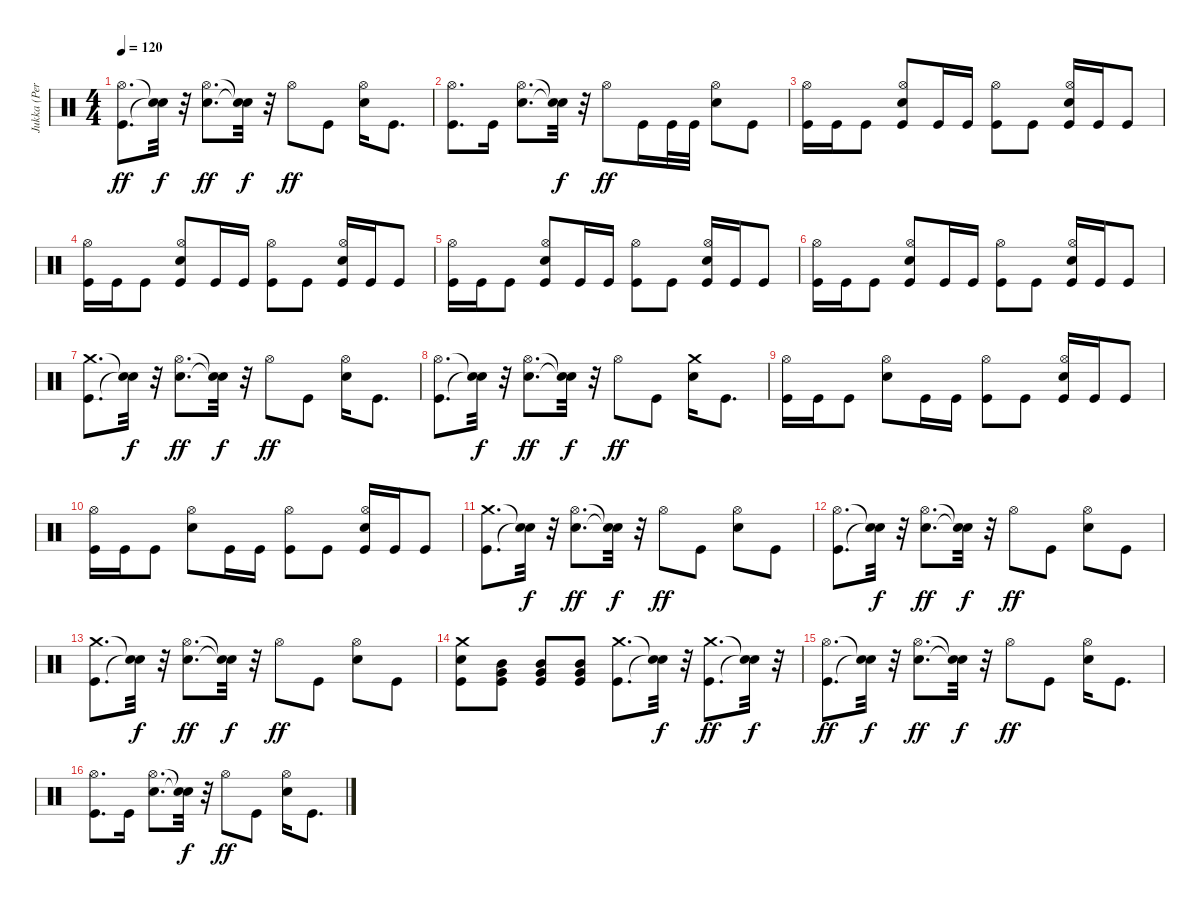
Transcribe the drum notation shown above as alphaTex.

\track ("Jukka (Percussion)" "Jukka (Per") {instrument percussion}
\staff {score}
\articulation defaults
\ts (4 4)
\tempo 120
\clef neutral
\ks c
("Kick (hit)" "Hi-Hat (open)").8{d dy ff} ("Snare (hit)"{t} "Snare (hit)"{t}).32{dy f} r.32 ("Electric Snare (hit)" "Hi-Hat (open)").8{d dy ff} ("Snare (hit)"{t} "Snare (hit)"{t}).32{dy f} r.32 "Hi-Hat (open)".8{dy ff} "Kick (hit)".8 ("Electric Snare (hit)" "Hi-Hat (open)").16 "Kick (hit)".8{d} |
("Kick (hit)" "Hi-Hat (open)").8{d} "Kick (hit)".16 ("Electric Snare (hit)" "Hi-Hat (open)").8{d} ("Snare (hit)"{t} "Snare (hit)"{t}).32{dy f} r.32 "Hi-Hat (open)".8{dy ff} "Kick (hit)".16 "Kick (hit)".32 "Kick (hit)".32 ("Electric Snare (hit)" "Hi-Hat (open)").8 "Kick (hit)".8 |
("Kick (hit)" "Hi-Hat (open)").16 "Kick (hit)".16 "Kick (hit)".8 ("Kick (hit)" "Electric Snare (hit)" "Hi-Hat (open)").8 "Kick (hit)".16 "Kick (hit)".16 ("Kick (hit)" "Hi-Hat (open)").8 "Kick (hit)".8 ("Kick (hit)" "Electric Snare (hit)" "Hi-Hat (open)").16 "Kick (hit)".16 "Kick (hit)".8 |
("Kick (hit)" "Hi-Hat (open)").16 "Kick (hit)".16 "Kick (hit)".8 ("Kick (hit)" "Electric Snare (hit)" "Hi-Hat (open)").8 "Kick (hit)".16 "Kick (hit)".16 ("Kick (hit)" "Hi-Hat (open)").8 "Kick (hit)".8 ("Kick (hit)" "Electric Snare (hit)" "Hi-Hat (open)").16 "Kick (hit)".16 "Kick (hit)".8 |
("Kick (hit)" "Hi-Hat (open)").16 "Kick (hit)".16 "Kick (hit)".8 ("Kick (hit)" "Electric Snare (hit)" "Hi-Hat (open)").8 "Kick (hit)".16 "Kick (hit)".16 ("Kick (hit)" "Hi-Hat (open)").8 "Kick (hit)".8 ("Kick (hit)" "Electric Snare (hit)" "Hi-Hat (open)").16 "Kick (hit)".16 "Kick (hit)".8 |
("Kick (hit)" "Hi-Hat (open)").16 "Kick (hit)".16 "Kick (hit)".8 ("Kick (hit)" "Electric Snare (hit)" "Hi-Hat (open)").8 "Kick (hit)".16 "Kick (hit)".16 ("Kick (hit)" "Hi-Hat (open)").8 "Kick (hit)".8 ("Kick (hit)" "Electric Snare (hit)" "Hi-Hat (open)").16 "Kick (hit)".16 "Kick (hit)".8 |
("Kick (hit)" "Crash medium (hit)").8{d} ("Snare (hit)"{t} "Snare (hit)"{t}).32{dy f} r.32 ("Electric Snare (hit)" "Hi-Hat (open)").8{d dy ff} ("Snare (hit)"{t} "Snare (hit)"{t}).32{dy f} r.32 "Hi-Hat (open)".8{dy ff} "Kick (hit)".8 ("Electric Snare (hit)" "Hi-Hat (open)").16 "Kick (hit)".8{d} |
("Kick (hit)" "Hi-Hat (open)").8{d} ("Snare (hit)"{t} "Snare (hit)"{t}).32{dy f} r.32 ("Electric Snare (hit)" "Hi-Hat (open)").8{d dy ff} ("Snare (hit)"{t} "Snare (hit)"{t}).32{dy f} r.32 "Hi-Hat (open)".8{dy ff} "Kick (hit)".8 ("Electric Snare (hit)" "Crash medium (hit)").16 "Kick (hit)".8{d} |
("Kick (hit)" "Hi-Hat (open)").16 "Kick (hit)".16 "Kick (hit)".8 ("Electric Snare (hit)" "Hi-Hat (open)").8 "Kick (hit)".16 "Kick (hit)".16 ("Kick (hit)" "Hi-Hat (open)").8 "Kick (hit)".8 ("Kick (hit)" "Electric Snare (hit)" "Hi-Hat (open)").16 "Kick (hit)".16 "Kick (hit)".8 |
("Kick (hit)" "Hi-Hat (open)").16 "Kick (hit)".16 "Kick (hit)".8 ("Electric Snare (hit)" "Hi-Hat (open)").8 "Kick (hit)".16 "Kick (hit)".16 ("Kick (hit)" "Hi-Hat (open)").8 "Kick (hit)".8 ("Kick (hit)" "Electric Snare (hit)" "Hi-Hat (open)").16 "Kick (hit)".16 "Kick (hit)".8 |
("Kick (hit)" "Crash medium (hit)").8{d} ("Snare (hit)"{t} "Snare (hit)"{t}).32{dy f} r.32 ("Electric Snare (hit)" "Hi-Hat (open)").8{d dy ff} ("Snare (hit)"{t} "Snare (hit)"{t}).32{dy f} r.32 "Hi-Hat (open)".8{dy ff} "Kick (hit)".8 ("Electric Snare (hit)" "Hi-Hat (open)").8 "Kick (hit)".8 |
("Kick (hit)" "Hi-Hat (open)").8{d} ("Snare (hit)"{t} "Snare (hit)"{t}).32{dy f} r.32 ("Electric Snare (hit)" "Hi-Hat (open)").8{d dy ff} ("Snare (hit)"{t} "Snare (hit)"{t}).32{dy f} r.32 "Hi-Hat (open)".8{dy ff} "Kick (hit)".8 ("Electric Snare (hit)" "Hi-Hat (open)").8 "Kick (hit)".8 |
("Kick (hit)" "Crash medium (hit)").8{d} ("Snare (hit)"{t} "Snare (hit)"{t}).32{dy f} r.32 ("Electric Snare (hit)" "Hi-Hat (open)").8{d dy ff} ("Snare (hit)"{t} "Snare (hit)"{t}).32{dy f} r.32 "Hi-Hat (open)".8{dy ff} "Kick (hit)".8 ("Electric Snare (hit)" "Hi-Hat (open)").8 "Kick (hit)".8 |
("Kick (hit)" "Electric Snare (hit)" "Crash medium (hit)").8 ("Kick (hit)" "Very Low Tom (hit)" "Mid Tom (hit)").8 ("Kick (hit)" "Very Low Tom (hit)" "Mid Tom (hit)").8 ("Kick (hit)" "Very Low Tom (hit)" "Mid Tom (hit)").8 ("Kick (hit)" "Crash medium (hit)").8{d} ("Snare (hit)"{t} "Snare (hit)"{t}).32{dy f} r.32 ("Kick (hit)" "Crash medium (hit)").8{d dy ff} ("Snare (hit)"{t} "Snare (hit)"{t}).32{dy f} r.32 |
("Kick (hit)" "Hi-Hat (open)").8{d dy ff} ("Snare (hit)"{t} "Snare (hit)"{t}).32{dy f} r.32 ("Electric Snare (hit)" "Hi-Hat (open)").8{d dy ff} ("Snare (hit)"{t} "Snare (hit)"{t}).32{dy f} r.32 "Hi-Hat (open)".8{dy ff} "Kick (hit)".8 ("Electric Snare (hit)" "Hi-Hat (open)").16 "Kick (hit)".8{d} |
("Kick (hit)" "Hi-Hat (open)").8{d} "Kick (hit)".16 ("Electric Snare (hit)" "Hi-Hat (open)").8{d} ("Snare (hit)"{t} "Snare (hit)"{t}).32{dy f} r.32 "Hi-Hat (open)".8{dy ff} "Kick (hit)".8 ("Electric Snare (hit)" "Hi-Hat (open)").16 "Kick (hit)".8{d}
